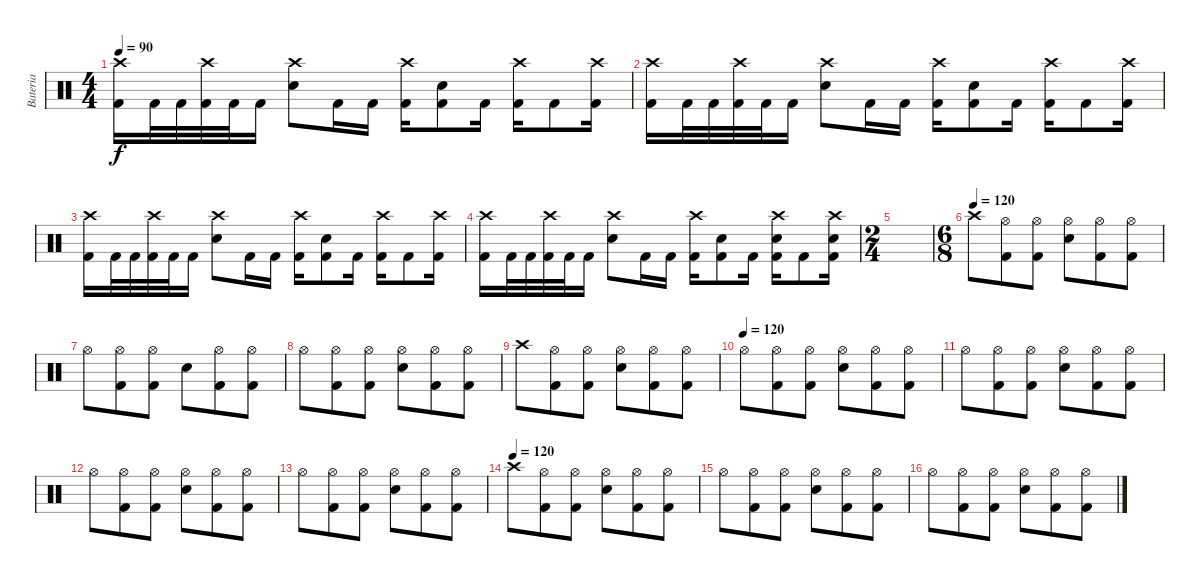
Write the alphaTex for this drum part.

\track ("Bateria" "Bateria") {instrument percussion}
\staff {score}
\articulation defaults
\ts (4 4)
\tempo 90
\clef neutral
\ks c
("Crash high (hit)" "Kick (hit) 2").16{dy f} "Kick (hit) 2".32 "Kick (hit) 2".32 ("Crash high (hit)" "Kick (hit) 2").32 "Kick (hit) 2".32 "Kick (hit) 2".16 ("Crash high (hit)" "Electric Snare (hit)").8 "Kick (hit) 2".16 "Kick (hit) 2".16 ("Crash high (hit)" "Kick (hit) 2").16 ("Kick (hit) 2" "Electric Snare (hit)").8 "Kick (hit) 2".16 ("Crash high (hit)" "Kick (hit) 2").16 "Kick (hit) 2".8 ("Kick (hit) 2" "Crash high (hit)").16 |
("Crash high (hit)" "Kick (hit) 2").16 "Kick (hit) 2".32 "Kick (hit) 2".32 ("Crash high (hit)" "Kick (hit) 2").32 "Kick (hit) 2".32 "Kick (hit) 2".16 ("Crash high (hit)" "Electric Snare (hit)").8 "Kick (hit) 2".16 "Kick (hit) 2".16 ("Crash high (hit)" "Kick (hit) 2").16 ("Kick (hit) 2" "Electric Snare (hit)").8 "Kick (hit) 2".16 ("Crash high (hit)" "Kick (hit) 2").16 "Kick (hit) 2".8 ("Kick (hit) 2" "Crash high (hit)").16 |
("Crash high (hit)" "Kick (hit) 2").16 "Kick (hit) 2".32 "Kick (hit) 2".32 ("Crash high (hit)" "Kick (hit) 2").32 "Kick (hit) 2".32 "Kick (hit) 2".16 ("Crash high (hit)" "Electric Snare (hit)").8 "Kick (hit) 2".16 "Kick (hit) 2".16 ("Crash high (hit)" "Kick (hit) 2").16 ("Kick (hit) 2" "Electric Snare (hit)").8 "Kick (hit) 2".16 ("Crash high (hit)" "Kick (hit) 2").16 "Kick (hit) 2".8 ("Kick (hit) 2" "Crash high (hit)").16 |
("Crash high (hit)" "Kick (hit) 2").16 "Kick (hit) 2".32 "Kick (hit) 2".32 ("Crash high (hit)" "Kick (hit) 2").32 "Kick (hit) 2".32 "Kick (hit) 2".16 ("Crash high (hit)" "Electric Snare (hit)").8 "Kick (hit) 2".16 "Kick (hit) 2".16 ("Crash high (hit)" "Kick (hit) 2").16 ("Kick (hit) 2" "Electric Snare (hit)").8 "Kick (hit) 2".16 ("Electric Snare (hit)" "Kick (hit) 2" "Crash high (hit)").16 "Kick (hit) 2".8 ("Kick (hit) 2" "Crash high (hit)" "Electric Snare (hit)").16 |
\ts (2 4)
|
\ts (6 8)
\tempo (120)
"Crash high (hit)".8 ("Hi-Hat (open)" "Kick (hit) 2").8 ("Hi-Hat (open)" "Kick (hit) 2").8 ("Hi-Hat (open)" "Electric Snare (hit)").8 ("Hi-Hat (open)" "Kick (hit) 2").8 ("Hi-Hat (open)" "Kick (hit) 2").8 |
"Hi-Hat (open)".8 ("Hi-Hat (open)" "Kick (hit) 2").8 ("Hi-Hat (open)" "Kick (hit) 2").8 "Electric Snare (hit)".8 ("Hi-Hat (open)" "Kick (hit) 2").8 ("Hi-Hat (open)" "Kick (hit) 2").8 |
"Hi-Hat (open)".8 ("Hi-Hat (open)" "Kick (hit) 2").8 ("Hi-Hat (open)" "Kick (hit) 2").8 ("Hi-Hat (open)" "Electric Snare (hit)").8 ("Hi-Hat (open)" "Kick (hit) 2").8 ("Hi-Hat (open)" "Kick (hit) 2").8 |
"Crash high (hit)".8 ("Hi-Hat (open)" "Kick (hit) 2").8 ("Hi-Hat (open)" "Kick (hit) 2").8 ("Hi-Hat (open)" "Electric Snare (hit)").8 ("Hi-Hat (open)" "Kick (hit) 2").8 ("Hi-Hat (open)" "Kick (hit) 2").8 |
\tempo (120)
"Hi-Hat (open)".8 ("Hi-Hat (open)" "Kick (hit) 2").8 ("Hi-Hat (open)" "Kick (hit) 2").8 ("Hi-Hat (open)" "Electric Snare (hit)").8 ("Hi-Hat (open)" "Kick (hit) 2").8 ("Hi-Hat (open)" "Kick (hit) 2").8 |
"Hi-Hat (open)".8 ("Hi-Hat (open)" "Kick (hit) 2").8 ("Hi-Hat (open)" "Kick (hit) 2").8 ("Hi-Hat (open)" "Electric Snare (hit)").8 ("Hi-Hat (open)" "Kick (hit) 2").8 ("Hi-Hat (open)" "Kick (hit) 2").8 |
"Hi-Hat (open)".8 ("Hi-Hat (open)" "Kick (hit) 2").8 ("Hi-Hat (open)" "Kick (hit) 2").8 ("Hi-Hat (open)" "Electric Snare (hit)").8 ("Hi-Hat (open)" "Kick (hit) 2").8 ("Hi-Hat (open)" "Kick (hit) 2").8 |
"Hi-Hat (open)".8 ("Hi-Hat (open)" "Kick (hit) 2").8 ("Hi-Hat (open)" "Kick (hit) 2").8 ("Hi-Hat (open)" "Electric Snare (hit)").8 ("Hi-Hat (open)" "Kick (hit) 2").8 ("Hi-Hat (open)" "Kick (hit) 2").8 |
\tempo (120)
"Crash high (hit)".8 ("Hi-Hat (open)" "Kick (hit) 2").8 ("Hi-Hat (open)" "Kick (hit) 2").8 ("Hi-Hat (open)" "Electric Snare (hit)").8 ("Hi-Hat (open)" "Kick (hit) 2").8 ("Hi-Hat (open)" "Kick (hit) 2").8 |
"Hi-Hat (open)".8 ("Hi-Hat (open)" "Kick (hit) 2").8 ("Hi-Hat (open)" "Kick (hit) 2").8 ("Hi-Hat (open)" "Electric Snare (hit)").8 ("Hi-Hat (open)" "Kick (hit) 2").8 ("Hi-Hat (open)" "Kick (hit) 2").8 |
"Hi-Hat (open)".8 ("Hi-Hat (open)" "Kick (hit) 2").8 ("Hi-Hat (open)" "Kick (hit) 2").8 ("Hi-Hat (open)" "Electric Snare (hit)").8 ("Hi-Hat (open)" "Kick (hit) 2").8 ("Hi-Hat (open)" "Kick (hit) 2").8
